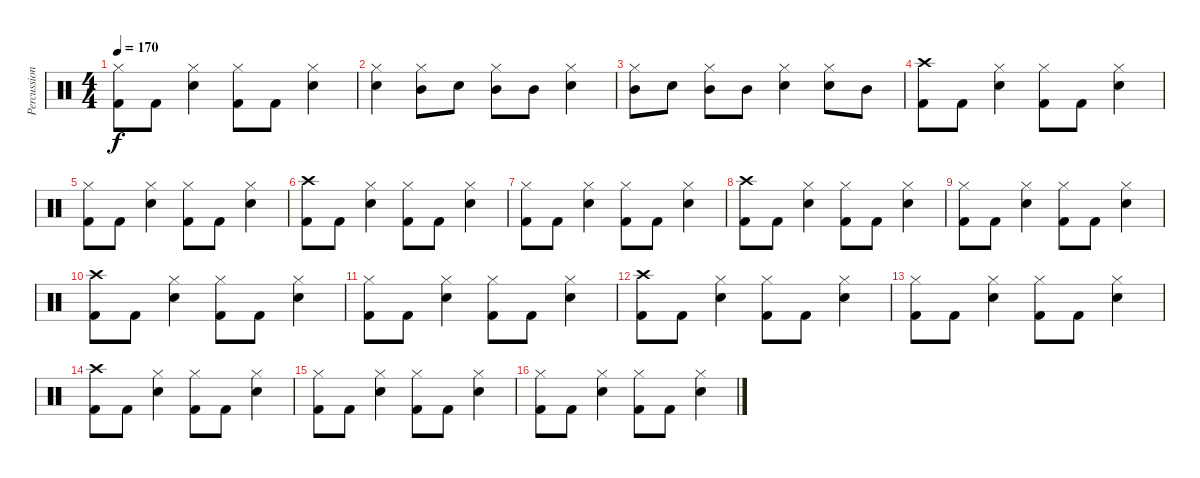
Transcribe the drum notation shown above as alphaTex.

\track ("Percussion" "Percussion") {instrument percussion}
\staff {score}
\articulation defaults
\ts (4 4)
\tempo 170
\clef neutral
\ks c
("Hi-Hat (closed)" "Kick (hit) 2").8{dy f} "Kick (hit) 2".8 ("Hi-Hat (closed)" "Electric Snare (hit)").4 ("Hi-Hat (closed)" "Kick (hit) 2").8 "Kick (hit) 2".8 ("Hi-Hat (closed)" "Electric Snare (hit)").4 |
("Hi-Hat (closed)" "Electric Snare (hit)").4 ("Hi-Hat (closed)" "Mid Tom (hit)").8 "Electric Snare (hit)".8 ("Hi-Hat (closed)" "Mid Tom (hit)").8 "Mid Tom (hit)".8 ("Hi-Hat (closed)" "Electric Snare (hit)").4 |
("Hi-Hat (closed)" "Mid Tom (hit)").8 "Electric Snare (hit)".8 ("Hi-Hat (closed)" "Mid Tom (hit)").8 "Mid Tom (hit)".8 ("Hi-Hat (closed)" "Electric Snare (hit)").4 ("Hi-Hat (closed)" "Electric Snare (hit)").8 "Mid Tom (hit)".8 |
("Crash high (hit)" "Kick (hit) 2").8 "Kick (hit) 2".8 ("Hi-Hat (closed)" "Electric Snare (hit)").4 ("Hi-Hat (closed)" "Kick (hit) 2").8 "Kick (hit) 2".8 ("Hi-Hat (closed)" "Electric Snare (hit)").4 |
("Hi-Hat (closed)" "Kick (hit) 2").8 "Kick (hit) 2".8 ("Hi-Hat (closed)" "Electric Snare (hit)").4 ("Hi-Hat (closed)" "Kick (hit) 2").8 "Kick (hit) 2".8 ("Hi-Hat (closed)" "Electric Snare (hit)").4 |
("Crash high (hit)" "Kick (hit) 2").8 "Kick (hit) 2".8 ("Hi-Hat (closed)" "Electric Snare (hit)").4 ("Hi-Hat (closed)" "Kick (hit) 2").8 "Kick (hit) 2".8 ("Hi-Hat (closed)" "Electric Snare (hit)").4 |
("Hi-Hat (closed)" "Kick (hit) 2").8 "Kick (hit) 2".8 ("Hi-Hat (closed)" "Electric Snare (hit)").4 ("Hi-Hat (closed)" "Kick (hit) 2").8 "Kick (hit) 2".8 ("Hi-Hat (closed)" "Electric Snare (hit)").4 |
("Crash high (hit)" "Kick (hit) 2").8 "Kick (hit) 2".8 ("Hi-Hat (closed)" "Electric Snare (hit)").4 ("Hi-Hat (closed)" "Kick (hit) 2").8 "Kick (hit) 2".8 ("Hi-Hat (closed)" "Electric Snare (hit)").4 |
("Hi-Hat (closed)" "Kick (hit) 2").8 "Kick (hit) 2".8 ("Hi-Hat (closed)" "Electric Snare (hit)").4 ("Hi-Hat (closed)" "Kick (hit) 2").8 "Kick (hit) 2".8 ("Hi-Hat (closed)" "Electric Snare (hit)").4 |
("Crash high (hit)" "Kick (hit) 2").8 "Kick (hit) 2".8 ("Hi-Hat (closed)" "Electric Snare (hit)").4 ("Hi-Hat (closed)" "Kick (hit) 2").8 "Kick (hit) 2".8 ("Hi-Hat (closed)" "Electric Snare (hit)").4 |
("Hi-Hat (closed)" "Kick (hit) 2").8 "Kick (hit) 2".8 ("Hi-Hat (closed)" "Electric Snare (hit)").4 ("Hi-Hat (closed)" "Kick (hit) 2").8 "Kick (hit) 2".8 ("Hi-Hat (closed)" "Electric Snare (hit)").4 |
("Crash high (hit)" "Kick (hit) 2").8 "Kick (hit) 2".8 ("Hi-Hat (closed)" "Electric Snare (hit)").4 ("Hi-Hat (closed)" "Kick (hit) 2").8 "Kick (hit) 2".8 ("Hi-Hat (closed)" "Electric Snare (hit)").4 |
("Hi-Hat (closed)" "Kick (hit) 2").8 "Kick (hit) 2".8 ("Hi-Hat (closed)" "Electric Snare (hit)").4 ("Hi-Hat (closed)" "Kick (hit) 2").8 "Kick (hit) 2".8 ("Hi-Hat (closed)" "Electric Snare (hit)").4 |
("Crash high (hit)" "Kick (hit) 2").8 "Kick (hit) 2".8 ("Hi-Hat (closed)" "Electric Snare (hit)").4 ("Hi-Hat (closed)" "Kick (hit) 2").8 "Kick (hit) 2".8 ("Hi-Hat (closed)" "Electric Snare (hit)").4 |
("Hi-Hat (closed)" "Kick (hit) 2").8 "Kick (hit) 2".8 ("Hi-Hat (closed)" "Electric Snare (hit)").4 ("Hi-Hat (closed)" "Kick (hit) 2").8 "Kick (hit) 2".8 ("Hi-Hat (closed)" "Electric Snare (hit)").4 |
("Hi-Hat (closed)" "Kick (hit) 2").8 "Kick (hit) 2".8 ("Hi-Hat (closed)" "Electric Snare (hit)").4 ("Hi-Hat (closed)" "Kick (hit) 2").8 "Kick (hit) 2".8 ("Hi-Hat (closed)" "Electric Snare (hit)").4
